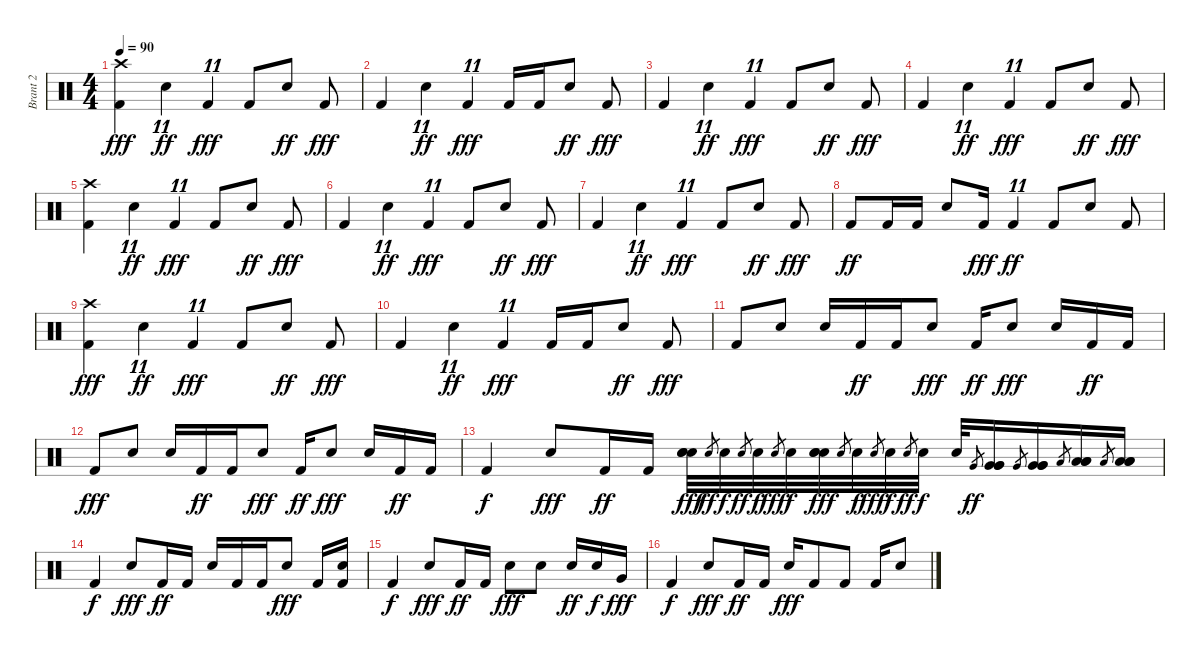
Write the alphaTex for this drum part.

\track ("Brant 2" "Brant 2") {instrument percussion}
\staff {score}
\articulation defaults
\ts (4 4)
\tempo 90
\clef neutral
\ks c
("Crash high (hit)" "Kick (hit) 2").4{dy fff} "Electric Snare (hit)".4{tu (11 8) dy ff} "Kick (hit) 2".4{tu (11 8) dy fff} "Kick (hit) 2".8 "Electric Snare (hit)".8{dy ff} "Kick (hit) 2".8{dy fff} |
"Kick (hit) 2".4 "Electric Snare (hit)".4{tu (11 8) dy ff} "Kick (hit) 2".4{tu (11 8) dy fff} "Kick (hit) 2".16 "Kick (hit) 2".16 "Electric Snare (hit)".8{dy ff} "Kick (hit) 2".8{dy fff} |
"Kick (hit) 2".4 "Electric Snare (hit)".4{tu (11 8) dy ff} "Kick (hit) 2".4{tu (11 8) dy fff} "Kick (hit) 2".8 "Electric Snare (hit)".8{dy ff} "Kick (hit) 2".8{dy fff} |
"Kick (hit) 2".4 "Electric Snare (hit)".4{tu (11 8) dy ff} "Kick (hit) 2".4{tu (11 8) dy fff} "Kick (hit) 2".8 "Electric Snare (hit)".8{dy ff} "Kick (hit) 2".8{dy fff} |
("Crash high (hit)" "Kick (hit) 2").4 "Electric Snare (hit)".4{tu (11 8) dy ff} "Kick (hit) 2".4{tu (11 8) dy fff} "Kick (hit) 2".8 "Electric Snare (hit)".8{dy ff} "Kick (hit) 2".8{dy fff} |
"Kick (hit) 2".4 "Electric Snare (hit)".4{tu (11 8) dy ff} "Kick (hit) 2".4{tu (11 8) dy fff} "Kick (hit) 2".8 "Electric Snare (hit)".8{dy ff} "Kick (hit) 2".8{dy fff} |
"Kick (hit) 2".4 "Electric Snare (hit)".4{tu (11 8) dy ff} "Kick (hit) 2".4{tu (11 8) dy fff} "Kick (hit) 2".8 "Electric Snare (hit)".8{dy ff} "Kick (hit) 2".8{dy fff} |
"Kick (hit) 2".8{dy ff} "Kick (hit) 2".16 "Kick (hit) 2".16 "Electric Snare (hit)".8 "Kick (hit) 2".16{dy fff} "Kick (hit) 2".4{tu (11 8) dy ff} "Kick (hit) 2".8 "Electric Snare (hit)".8 "Kick (hit) 2".8 |
("Crash high (hit)" "Kick (hit) 2").4{dy fff} "Electric Snare (hit)".4{tu (11 8) dy ff} "Kick (hit) 2".4{tu (11 8) dy fff} "Kick (hit) 2".8 "Electric Snare (hit)".8{dy ff} "Kick (hit) 2".8{dy fff} |
"Kick (hit) 2".4 "Electric Snare (hit)".4{tu (11 8) dy ff} "Kick (hit) 2".4{tu (11 8) dy fff} "Kick (hit) 2".16 "Kick (hit) 2".16 "Electric Snare (hit)".8{dy ff} "Kick (hit) 2".8{dy fff} |
"Kick (hit) 2".8 "Electric Snare (hit)".8 "Electric Snare (hit)".16 "Kick (hit) 2".16{dy ff} "Kick (hit) 2".16 "Electric Snare (hit)".8{dy fff} "Kick (hit) 2".16{dy ff} "Electric Snare (hit)".8{dy fff} "Electric Snare (hit)".16 "Kick (hit) 2".16{dy ff} "Kick (hit) 2".16 |
"Kick (hit) 2".8{dy fff} "Electric Snare (hit)".8 "Electric Snare (hit)".16 "Kick (hit) 2".16{dy ff} "Kick (hit) 2".16 "Electric Snare (hit)".8{dy fff} "Kick (hit) 2".16{dy ff} "Electric Snare (hit)".8{dy fff} "Electric Snare (hit)".16 "Kick (hit) 2".16{dy ff} "Kick (hit) 2".16 |
"Kick (hit) 2".4{dy f} "Electric Snare (hit)".8{dy fff} "Kick (hit) 2".16{dy ff} "Kick (hit) 2".16 ("Electric Snare (hit)" "Electric Snare (hit)" "Electric Snare (hit)").32{dy fff} "Electric Snare (hit)".8{gr dy ff} "Snare (hit) 2".32{dy f} "Electric Snare (hit)".8{gr dy ff} "Snare (hit) 2".32{dy f} "Electric Snare (hit)".8{gr dy fff} "Snare (hit) 2".32{dy f} ("Electric Snare (hit)" "Electric Snare (hit)" "Electric Snare (hit)").32{dy fff} "Electric Snare (hit)".8{gr} "Snare (hit) 2".32{dy f} "Electric Snare (hit)".8{gr dy fff} "Snare (hit) 2".32{dy f} "Electric Snare (hit)".8{gr dy ff} "Snare (hit) 2".32{dy f} "Snare (hit) 2".32 "Very Low Tom (hit)".8{gr dy ff} ("Very Low Tom (hit)" "Very Low Tom (hit)" "Very Low Tom (hit)").16 "Very Low Tom (hit)".8{gr} ("Very Low Tom (hit)" "Very Low Tom (hit)" "Very Low Tom (hit)").16 "Low Floor Tom (hit)".8{gr} ("Low Floor Tom (hit)" "Low Floor Tom (hit)" "Low Floor Tom (hit)").16 "Low Floor Tom (hit)".8{gr} ("Low Floor Tom (hit)" "Low Floor Tom (hit)" "Low Floor Tom (hit)").16 |
"Kick (hit) 2".4{dy f} "Electric Snare (hit)".8{dy fff} "Kick (hit) 2".16{dy ff} "Kick (hit) 2".16 "Electric Snare (hit)".16 "Kick (hit) 2".16 "Kick (hit) 2".16 "Electric Snare (hit)".8{dy fff} "Kick (hit) 2".16 ("Kick (hit) 2" "Electric Snare (hit)").16 |
"Kick (hit) 2".4{dy f} "Electric Snare (hit)".8{dy fff} "Kick (hit) 2".16{dy ff} "Kick (hit) 2".16 "Electric Snare (hit)".8{dy fff} "Electric Snare (hit)".8 "Electric Snare (hit)".16{dy ff} "Electric Snare (hit)".16{dy f} "Very Low Tom (hit)".16{dy fff} |
"Kick (hit) 2".4{dy f} "Electric Snare (hit)".8{dy fff} "Kick (hit) 2".16{dy ff} "Kick (hit) 2".16 "Electric Snare (hit)".16{dy fff} "Kick (hit) 2".8 "Kick (hit) 2".8 "Kick (hit) 2".16 "Electric Snare (hit)".8
